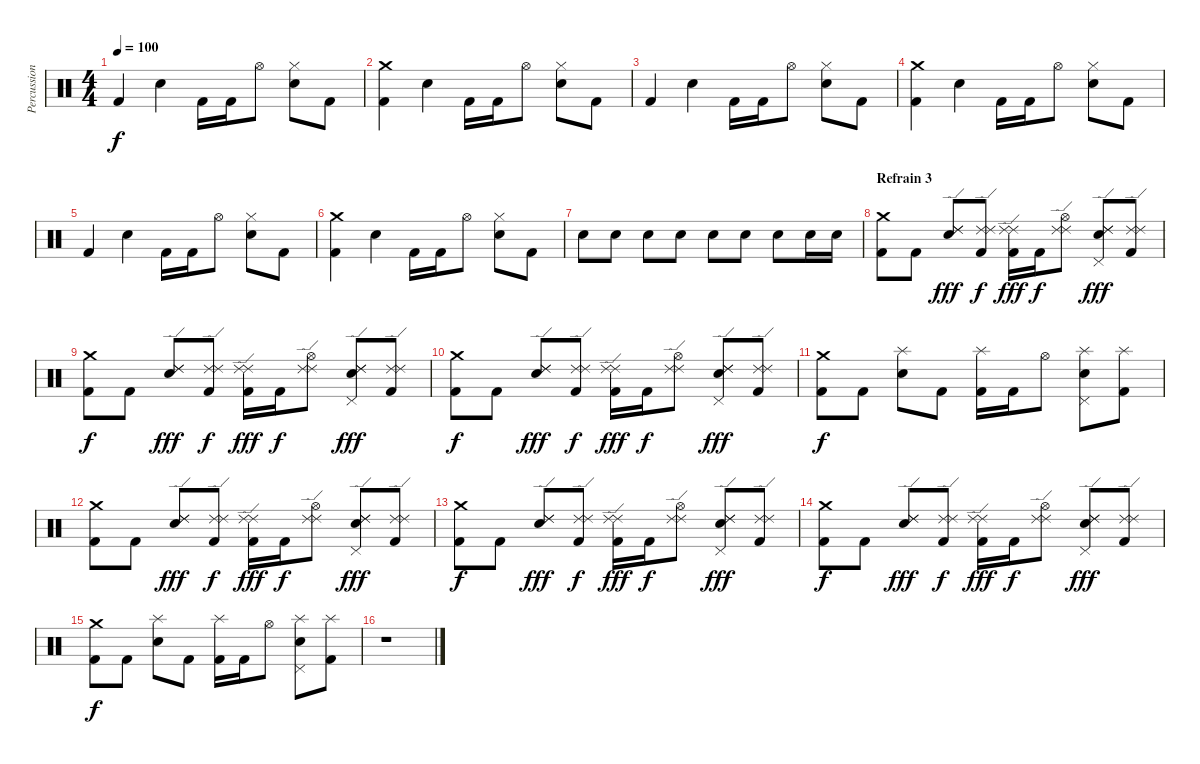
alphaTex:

\track ("Percussions" "Percussion") {instrument percussion}
\staff {score}
\articulation defaults
\ts (4 4)
\tempo 100
\clef neutral
\ks c "Kick (hit) 2".4{dy f} "Snare (hit) 2".4 "Kick (hit) 2".16 "Kick (hit) 2".16 "Hi-Hat (open)".8
("Hi-Hat (closed)" "Snare (hit) 2").8 "Kick (hit) 2".8 |
("Crash medium (hit)" "Kick (hit) 2").4 "Snare (hit) 2".4 "Kick (hit) 2".16 "Kick (hit) 2".16 "Hi-Hat (open)".8 ("Hi-Hat (closed)" "Snare (hit) 2").8 "Kick (hit) 2".8 |
"Kick (hit) 2".4 "Snare (hit) 2".4 "Kick (hit) 2".16 "Kick (hit) 2".16 "Hi-Hat (open)".8 ("Hi-Hat (closed)" "Snare (hit) 2").8 "Kick (hit) 2".8 |
("Crash medium (hit)" "Kick (hit) 2").4 "Snare (hit) 2".4 "Kick (hit) 2".16 "Kick (hit) 2".16 "Hi-Hat (open)".8 ("Hi-Hat (closed)" "Snare (hit) 2").8 "Kick (hit) 2".8 |
"Kick (hit) 2".4 "Snare (hit) 2".4 "Kick (hit) 2".16 "Kick (hit) 2".16 "Hi-Hat (open)".8 ("Hi-Hat (closed)" "Snare (hit) 2").8 "Kick (hit) 2".8 |
("Crash medium (hit)" "Kick (hit) 2").4 "Snare (hit) 2".4 "Kick (hit) 2".16 "Kick (hit) 2".16 "Hi-Hat (open)".8 ("Hi-Hat (closed)" "Snare (hit) 2").8 "Kick (hit) 2".8 |
"Snare (hit) 2".8{volume 4} "Snare (hit) 2".8{volume 13} "Snare (hit) 2".8 "Snare (hit) 2".8 "Snare (hit) 2".8 "Snare (hit) 2".8 "Snare (hit) 2".8 "Snare (hit) 2".16 "Snare (hit) 2".16 |
\section ("" "Refrain 3")
("Crash medium (hit)" "Kick (hit) 2").8 "Kick (hit) 2".8 ("Ride (edge) 2" "Ride (edge) 2" "Snare (hit) 2").8{dy fff} ("Ride (edge) 2" "Ride (edge) 2" "Kick (hit) 2").8{dy f} ("Ride (edge) 2" "Ride (edge) 2" "Kick (hit) 2").16{dy fff} "Kick (hit) 2".16{dy f} ("Ride (edge) 2" "Ride (edge) 2" "Hi-Hat (open)").8 ("Ride (edge) 2" "Ride (edge) 2" "Pedal Hi-Hat (hit)" "Snare (hit) 2").8{dy fff} ("Ride (edge) 2" "Ride (edge) 2" "Kick (hit) 2").8 |
("Crash medium (hit)" "Kick (hit) 2").8{dy f} "Kick (hit) 2".8 ("Ride (edge) 2" "Ride (edge) 2" "Snare (hit) 2").8{dy fff} ("Ride (edge) 2" "Ride (edge) 2" "Kick (hit) 2").8{dy f} ("Ride (edge) 2" "Ride (edge) 2" "Kick (hit) 2").16{dy fff} "Kick (hit) 2".16{dy f} ("Ride (edge) 2" "Ride (edge) 2" "Hi-Hat (open)").8 ("Ride (edge) 2" "Ride (edge) 2" "Pedal Hi-Hat (hit)" "Snare (hit) 2").8{dy fff} ("Ride (edge) 2" "Ride (edge) 2" "Kick (hit) 2").8 |
("Crash medium (hit)" "Kick (hit) 2").8{dy f} "Kick (hit) 2".8 ("Ride (edge) 2" "Ride (edge) 2" "Snare (hit) 2").8{dy fff} ("Ride (edge) 2" "Ride (edge) 2" "Kick (hit) 2").8{dy f} ("Ride (edge) 2" "Ride (edge) 2" "Kick (hit) 2").16{dy fff} "Kick (hit) 2".16{dy f} ("Ride (edge) 2" "Ride (edge) 2" "Hi-Hat (open)").8 ("Ride (edge) 2" "Ride (edge) 2" "Pedal Hi-Hat (hit)" "Snare (hit) 2").8{dy fff} ("Ride (edge) 2" "Ride (edge) 2" "Kick (hit) 2").8 |
("Crash medium (hit)" "Kick (hit) 2").8{dy f} "Kick (hit) 2".8 ("Splash (hit)" "Snare (hit) 2").8 "Kick (hit) 2".8 ("Splash (hit)" "Kick (hit) 2").16 "Kick (hit) 2".16 "Hi-Hat (open)".8 ("Splash (hit)" "Pedal Hi-Hat (hit)" "Snare (hit) 2").8 ("Splash (hit)" "Kick (hit) 2").8 |
("Crash medium (hit)" "Kick (hit) 2").8 "Kick (hit) 2".8 ("Ride (edge) 2" "Ride (edge) 2" "Snare (hit) 2").8{dy fff} ("Ride (edge) 2" "Ride (edge) 2" "Kick (hit) 2").8{dy f} ("Ride (edge) 2" "Ride (edge) 2" "Kick (hit) 2").16{dy fff} "Kick (hit) 2".16{dy f} ("Ride (edge) 2" "Ride (edge) 2" "Hi-Hat (open)").8 ("Ride (edge) 2" "Ride (edge) 2" "Pedal Hi-Hat (hit)" "Snare (hit) 2").8{dy fff} ("Ride (edge) 2" "Ride (edge) 2" "Kick (hit) 2").8 |
("Crash medium (hit)" "Kick (hit) 2").8{dy f} "Kick (hit) 2".8 ("Ride (edge) 2" "Ride (edge) 2" "Snare (hit) 2").8{dy fff} ("Ride (edge) 2" "Ride (edge) 2" "Kick (hit) 2").8{dy f} ("Ride (edge) 2" "Ride (edge) 2" "Kick (hit) 2").16{dy fff} "Kick (hit) 2".16{dy f} ("Ride (edge) 2" "Ride (edge) 2" "Hi-Hat (open)").8 ("Ride (edge) 2" "Ride (edge) 2" "Pedal Hi-Hat (hit)" "Snare (hit) 2").8{dy fff} ("Ride (edge) 2" "Ride (edge) 2" "Kick (hit) 2").8 |
("Crash medium (hit)" "Kick (hit) 2").8{dy f} "Kick (hit) 2".8 ("Ride (edge) 2" "Ride (edge) 2" "Snare (hit) 2").8{dy fff} ("Ride (edge) 2" "Ride (edge) 2" "Kick (hit) 2").8{dy f} ("Ride (edge) 2" "Ride (edge) 2" "Kick (hit) 2").16{dy fff} "Kick (hit) 2".16{dy f} ("Ride (edge) 2" "Ride (edge) 2" "Hi-Hat (open)").8 ("Ride (edge) 2" "Ride (edge) 2" "Pedal Hi-Hat (hit)" "Snare (hit) 2").8{dy fff} ("Ride (edge) 2" "Ride (edge) 2" "Kick (hit) 2").8 |
("Crash medium (hit)" "Kick (hit) 2").8{dy f} "Kick (hit) 2".8 ("Splash (hit)" "Snare (hit) 2").8 "Kick (hit) 2".8 ("Splash (hit)" "Kick (hit) 2").16 "Kick (hit) 2".16 "Hi-Hat (open)".8 ("Splash (hit)" "Pedal Hi-Hat (hit)" "Snare (hit) 2").8 ("Splash (hit)" "Kick (hit) 2").8 |
r.1
